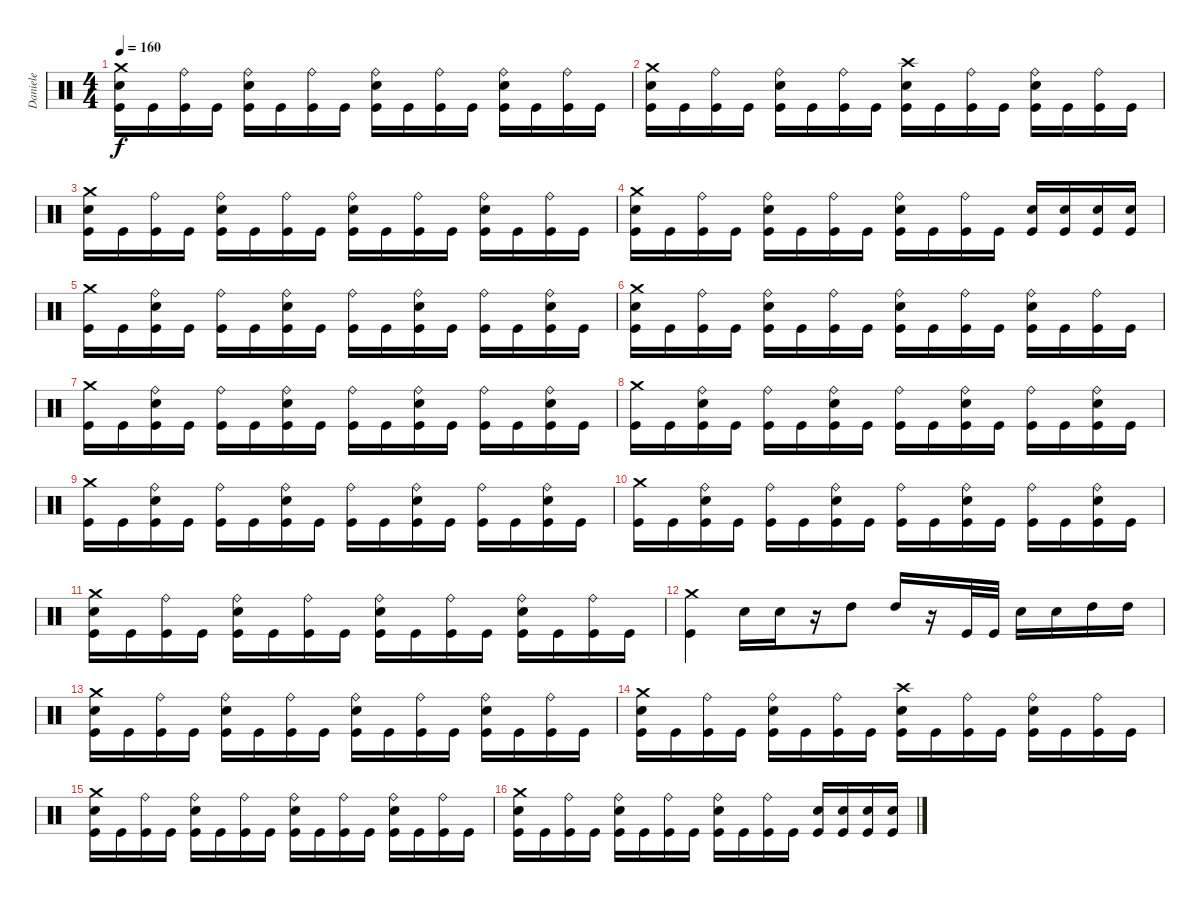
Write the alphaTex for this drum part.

\track ("Daniele" "Daniele") {instrument percussion}
\staff {score}
\articulation defaults
\ts (4 4)
\tempo 160
\clef neutral
\ks c
("Kick (hit)" "Electric Snare (hit)" "Crash medium (hit)").16{dy f} "Kick (hit)".16 ("Kick (hit)" "Ride (bell)").16 "Kick (hit)".16 ("Kick (hit)" "Electric Snare (hit)" "Ride (bell)").16 "Kick (hit)".16 ("Kick (hit)" "Ride (bell)").16 "Kick (hit)".16 ("Kick (hit)" "Electric Snare (hit)" "Ride (bell)").16 "Kick (hit)".16 ("Kick (hit)" "Ride (bell)").16 "Kick (hit)".16 ("Kick (hit)" "Electric Snare (hit)" "Ride (bell)").16 "Kick (hit)".16 ("Kick (hit)" "Ride (bell)").16 "Kick (hit)".16 |
("Kick (hit)" "Electric Snare (hit)" "Crash medium (hit)").16 "Kick (hit)".16 ("Kick (hit)" "Ride (bell)").16 "Kick (hit)".16 ("Kick (hit)" "Electric Snare (hit)" "Ride (bell)").16 "Kick (hit)".16 ("Kick (hit)" "Ride (bell)").16 "Kick (hit)".16 ("Kick (hit)" "Electric Snare (hit)" "Crash high (hit)").16 "Kick (hit)".16 ("Kick (hit)" "Ride (bell)").16 "Kick (hit)".16 ("Kick (hit)" "Electric Snare (hit)" "Ride (bell)").16 "Kick (hit)".16 ("Kick (hit)" "Ride (bell)").16 "Kick (hit)".16 |
("Kick (hit)" "Electric Snare (hit)" "Crash medium (hit)").16 "Kick (hit)".16 ("Kick (hit)" "Ride (bell)").16 "Kick (hit)".16 ("Kick (hit)" "Electric Snare (hit)" "Ride (bell)").16 "Kick (hit)".16 ("Kick (hit)" "Ride (bell)").16 "Kick (hit)".16 ("Kick (hit)" "Electric Snare (hit)" "Ride (bell)").16 "Kick (hit)".16 ("Kick (hit)" "Ride (bell)").16 "Kick (hit)".16 ("Kick (hit)" "Electric Snare (hit)" "Ride (bell)").16 "Kick (hit)".16 ("Kick (hit)" "Ride (bell)").16 "Kick (hit)".16 |
("Kick (hit)" "Electric Snare (hit)" "Crash medium (hit)").16 "Kick (hit)".16 ("Kick (hit)" "Ride (bell)").16 "Kick (hit)".16 ("Kick (hit)" "Electric Snare (hit)" "Ride (bell)").16 "Kick (hit)".16 ("Kick (hit)" "Ride (bell)").16 "Kick (hit)".16 ("Kick (hit)" "Electric Snare (hit)" "Ride (bell)").16 "Kick (hit)".16 ("Kick (hit)" "Ride (bell)").16 "Kick (hit)".16 ("Kick (hit)" "Electric Snare (hit)").16 ("Kick (hit)" "Electric Snare (hit)").16 ("Kick (hit)" "Electric Snare (hit)").16 ("Kick (hit)" "Electric Snare (hit)").16 |
("Kick (hit)" "Crash medium (hit)").16 "Kick (hit)".16 ("Kick (hit)" "Electric Snare (hit)" "Ride (bell)").16 "Kick (hit)".16 ("Kick (hit)" "Ride (bell)").16 "Kick (hit)".16 ("Kick (hit)" "Electric Snare (hit)" "Ride (bell)").16 "Kick (hit)".16 ("Kick (hit)" "Ride (bell)").16 "Kick (hit)".16 ("Kick (hit)" "Electric Snare (hit)" "Ride (bell)").16 "Kick (hit)".16 ("Kick (hit)" "Ride (bell)").16 "Kick (hit)".16 ("Kick (hit)" "Electric Snare (hit)" "Ride (bell)").16 "Kick (hit)".16 |
("Kick (hit)" "Electric Snare (hit)" "Crash medium (hit)").16 "Kick (hit)".16 ("Kick (hit)" "Ride (bell)").16 "Kick (hit)".16 ("Kick (hit)" "Electric Snare (hit)" "Ride (bell)").16 "Kick (hit)".16 ("Kick (hit)" "Ride (bell)").16 "Kick (hit)".16 ("Kick (hit)" "Electric Snare (hit)" "Ride (bell)").16 "Kick (hit)".16 ("Kick (hit)" "Ride (bell)").16 "Kick (hit)".16 ("Kick (hit)" "Electric Snare (hit)" "Ride (bell)").16 "Kick (hit)".16 ("Kick (hit)" "Ride (bell)").16 "Kick (hit)".16 |
("Kick (hit)" "Crash medium (hit)").16 "Kick (hit)".16 ("Kick (hit)" "Electric Snare (hit)" "Ride (bell)").16 "Kick (hit)".16 ("Kick (hit)" "Ride (bell)").16 "Kick (hit)".16 ("Kick (hit)" "Electric Snare (hit)" "Ride (bell)").16 "Kick (hit)".16 ("Kick (hit)" "Ride (bell)").16 "Kick (hit)".16 ("Kick (hit)" "Electric Snare (hit)" "Ride (bell)").16 "Kick (hit)".16 ("Kick (hit)" "Ride (bell)").16 "Kick (hit)".16 ("Kick (hit)" "Electric Snare (hit)" "Ride (bell)").16 "Kick (hit)".16 |
("Kick (hit)" "Crash medium (hit)").16 "Kick (hit)".16 ("Kick (hit)" "Electric Snare (hit)" "Ride (bell)").16 "Kick (hit)".16 ("Kick (hit)" "Ride (bell)").16 "Kick (hit)".16 ("Kick (hit)" "Electric Snare (hit)" "Ride (bell)").16 "Kick (hit)".16 ("Kick (hit)" "Ride (bell)").16 "Kick (hit)".16 ("Kick (hit)" "Electric Snare (hit)" "Ride (bell)").16 "Kick (hit)".16 ("Kick (hit)" "Ride (bell)").16 "Kick (hit)".16 ("Kick (hit)" "Electric Snare (hit)" "Ride (bell)").16 "Kick (hit)".16 |
("Kick (hit)" "Crash medium (hit)").16 "Kick (hit)".16 ("Kick (hit)" "Electric Snare (hit)" "Ride (bell)").16 "Kick (hit)".16 ("Kick (hit)" "Ride (bell)").16 "Kick (hit)".16 ("Kick (hit)" "Electric Snare (hit)" "Ride (bell)").16 "Kick (hit)".16 ("Kick (hit)" "Ride (bell)").16 "Kick (hit)".16 ("Kick (hit)" "Electric Snare (hit)" "Ride (bell)").16 "Kick (hit)".16 ("Kick (hit)" "Ride (bell)").16 "Kick (hit)".16 ("Kick (hit)" "Electric Snare (hit)" "Ride (bell)").16 "Kick (hit)".16 |
("Kick (hit)" "Crash medium (hit)").16 "Kick (hit)".16 ("Kick (hit)" "Electric Snare (hit)" "Ride (bell)").16 "Kick (hit)".16 ("Kick (hit)" "Ride (bell)").16 "Kick (hit)".16 ("Kick (hit)" "Electric Snare (hit)" "Ride (bell)").16 "Kick (hit)".16 ("Kick (hit)" "Ride (bell)").16 "Kick (hit)".16 ("Kick (hit)" "Electric Snare (hit)" "Ride (bell)").16 "Kick (hit)".16 ("Kick (hit)" "Ride (bell)").16 "Kick (hit)".16 ("Kick (hit)" "Electric Snare (hit)" "Ride (bell)").16 "Kick (hit)".16 |
("Kick (hit)" "Electric Snare (hit)" "Crash medium (hit)").16 "Kick (hit)".16 ("Kick (hit)" "Ride (bell)").16 "Kick (hit)".16 ("Kick (hit)" "Electric Snare (hit)" "Ride (bell)").16 "Kick (hit)".16 ("Kick (hit)" "Ride (bell)").16 "Kick (hit)".16 ("Kick (hit)" "Electric Snare (hit)" "Ride (bell)").16 "Kick (hit)".16 ("Kick (hit)" "Ride (bell)").16 "Kick (hit)".16 ("Kick (hit)" "Electric Snare (hit)" "Ride (bell)").16 "Kick (hit)".16 ("Kick (hit)" "Ride (bell)").16 "Kick (hit)".16 |
("Kick (hit)" "Crash medium (hit)").4 "Electric Snare (hit)".16 "Electric Snare (hit)".16 r.16 "High Tom (hit)".8 "High Tom (hit)".16 r.16 "Kick (hit)".32 "Kick (hit)".32 "Electric Snare (hit)".16 "Electric Snare (hit)".16 "High Tom (hit)".16 "High Tom (hit)".16 |
("Kick (hit)" "Electric Snare (hit)" "Crash medium (hit)").16 "Kick (hit)".16 ("Kick (hit)" "Ride (bell)").16 "Kick (hit)".16 ("Kick (hit)" "Electric Snare (hit)" "Ride (bell)").16 "Kick (hit)".16 ("Kick (hit)" "Ride (bell)").16 "Kick (hit)".16 ("Kick (hit)" "Electric Snare (hit)" "Ride (bell)").16 "Kick (hit)".16 ("Kick (hit)" "Ride (bell)").16 "Kick (hit)".16 ("Kick (hit)" "Electric Snare (hit)" "Ride (bell)").16 "Kick (hit)".16 ("Kick (hit)" "Ride (bell)").16 "Kick (hit)".16 |
("Kick (hit)" "Electric Snare (hit)" "Crash medium (hit)").16 "Kick (hit)".16 ("Kick (hit)" "Ride (bell)").16 "Kick (hit)".16 ("Kick (hit)" "Electric Snare (hit)" "Ride (bell)").16 "Kick (hit)".16 ("Kick (hit)" "Ride (bell)").16 "Kick (hit)".16 ("Kick (hit)" "Electric Snare (hit)" "Crash high (hit)").16 "Kick (hit)".16 ("Kick (hit)" "Ride (bell)").16 "Kick (hit)".16 ("Kick (hit)" "Electric Snare (hit)" "Ride (bell)").16 "Kick (hit)".16 ("Kick (hit)" "Ride (bell)").16 "Kick (hit)".16 |
("Kick (hit)" "Electric Snare (hit)" "Crash medium (hit)").16 "Kick (hit)".16 ("Kick (hit)" "Ride (bell)").16 "Kick (hit)".16 ("Kick (hit)" "Electric Snare (hit)" "Ride (bell)").16 "Kick (hit)".16 ("Kick (hit)" "Ride (bell)").16 "Kick (hit)".16 ("Kick (hit)" "Electric Snare (hit)" "Ride (bell)").16 "Kick (hit)".16 ("Kick (hit)" "Ride (bell)").16 "Kick (hit)".16 ("Kick (hit)" "Electric Snare (hit)" "Ride (bell)").16 "Kick (hit)".16 ("Kick (hit)" "Ride (bell)").16 "Kick (hit)".16 |
("Kick (hit)" "Electric Snare (hit)" "Crash medium (hit)").16 "Kick (hit)".16 ("Kick (hit)" "Ride (bell)").16 "Kick (hit)".16 ("Kick (hit)" "Electric Snare (hit)" "Ride (bell)").16 "Kick (hit)".16 ("Kick (hit)" "Ride (bell)").16 "Kick (hit)".16 ("Kick (hit)" "Electric Snare (hit)" "Ride (bell)").16 "Kick (hit)".16 ("Kick (hit)" "Ride (bell)").16 "Kick (hit)".16 ("Kick (hit)" "Electric Snare (hit)").16 ("Kick (hit)" "Electric Snare (hit)").16 ("Kick (hit)" "Electric Snare (hit)").16 ("Kick (hit)" "Electric Snare (hit)").16
